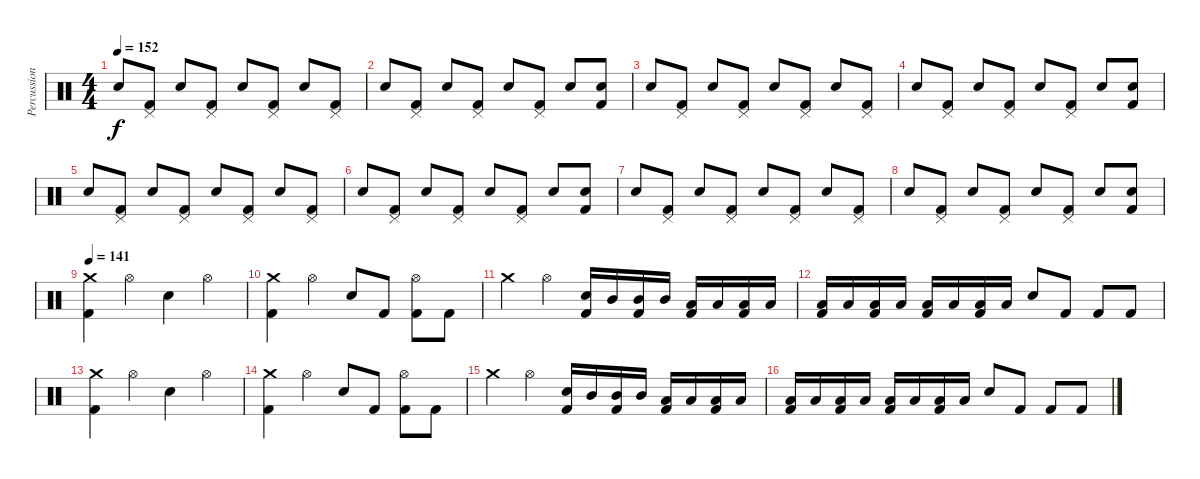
\track ("Percussion" "Percussion") {instrument percussion}
\staff {score}
\articulation defaults
\ts (4 4)
\tempo 152
\clef neutral
\ks c "Electric Snare (hit)".8{dy f}
("Pedal Hi-Hat (hit)" "Kick (hit) 2").8 "Electric Snare (hit)".8 ("Pedal Hi-Hat (hit)" "Kick (hit) 2").8 "Electric Snare (hit)".8 ("Pedal Hi-Hat (hit)" "Kick (hit) 2").8 "Electric Snare (hit)".8 ("Pedal Hi-Hat (hit)" "Kick (hit) 2").8 |
"Electric Snare (hit)".8 ("Pedal Hi-Hat (hit)" "Kick (hit) 2").8 "Electric Snare (hit)".8 ("Pedal Hi-Hat (hit)" "Kick (hit) 2").8 "Electric Snare (hit)".8 ("Pedal Hi-Hat (hit)" "Kick (hit) 2").8 "Electric Snare (hit)".8 ("Electric Snare (hit)" "Kick (hit) 2").8 |
"Electric Snare (hit)".8 ("Pedal Hi-Hat (hit)" "Kick (hit) 2").8 "Electric Snare (hit)".8 ("Pedal Hi-Hat (hit)" "Kick (hit) 2").8 "Electric Snare (hit)".8 ("Pedal Hi-Hat (hit)" "Kick (hit) 2").8 "Electric Snare (hit)".8 ("Pedal Hi-Hat (hit)" "Kick (hit) 2").8 |
"Electric Snare (hit)".8 ("Pedal Hi-Hat (hit)" "Kick (hit) 2").8 "Electric Snare (hit)".8 ("Pedal Hi-Hat (hit)" "Kick (hit) 2").8 "Electric Snare (hit)".8 ("Pedal Hi-Hat (hit)" "Kick (hit) 2").8 "Electric Snare (hit)".8 ("Electric Snare (hit)" "Kick (hit) 2").8 |
"Electric Snare (hit)".8 ("Pedal Hi-Hat (hit)" "Kick (hit) 2").8 "Electric Snare (hit)".8 ("Pedal Hi-Hat (hit)" "Kick (hit) 2").8 "Electric Snare (hit)".8 ("Pedal Hi-Hat (hit)" "Kick (hit) 2").8 "Electric Snare (hit)".8 ("Pedal Hi-Hat (hit)" "Kick (hit) 2").8 |
"Electric Snare (hit)".8 ("Pedal Hi-Hat (hit)" "Kick (hit) 2").8 "Electric Snare (hit)".8 ("Pedal Hi-Hat (hit)" "Kick (hit) 2").8 "Electric Snare (hit)".8 ("Pedal Hi-Hat (hit)" "Kick (hit) 2").8 "Electric Snare (hit)".8 ("Electric Snare (hit)" "Kick (hit) 2").8 |
"Electric Snare (hit)".8 ("Pedal Hi-Hat (hit)" "Kick (hit) 2").8 "Electric Snare (hit)".8 ("Pedal Hi-Hat (hit)" "Kick (hit) 2").8 "Electric Snare (hit)".8 ("Pedal Hi-Hat (hit)" "Kick (hit) 2").8 "Electric Snare (hit)".8 ("Pedal Hi-Hat (hit)" "Kick (hit) 2").8 |
"Electric Snare (hit)".8 ("Pedal Hi-Hat (hit)" "Kick (hit) 2").8 "Electric Snare (hit)".8 ("Pedal Hi-Hat (hit)" "Kick (hit) 2").8 "Electric Snare (hit)".8 ("Pedal Hi-Hat (hit)" "Kick (hit) 2").8 "Electric Snare (hit)".8 ("Electric Snare (hit)" "Kick (hit) 2").8 |
\tempo 141
("Crash medium (hit)" "Kick (hit) 2").4{volume 9} "Hi-Hat (open)".4 "Electric Snare (hit)".4 "Hi-Hat (open)".4 |
("Crash medium (hit)" "Kick (hit) 2").4 "Hi-Hat (open)".4 "Electric Snare (hit)".8 "Kick (hit) 2".8 ("Hi-Hat (open)" "Kick (hit) 2").8 "Kick (hit) 2".8 |
"Crash medium (hit)".4 "Hi-Hat (open)".4 ("Electric Snare (hit)" "Kick (hit) 2").16 "Mid Tom (hit)".16 ("Mid Tom (hit)" "Kick (hit) 2").16 "Mid Tom (hit)".16 ("Low Tom (hit)" "Kick (hit) 2").16 "Low Tom (hit)".16 ("Low Tom (hit)" "Kick (hit) 2").16 "Low Floor Tom (hit)".16 |
("Low Floor Tom (hit)" "Kick (hit) 2").16 "Low Floor Tom (hit)".16 ("Low Tom (hit)" "Kick (hit) 2").16 "Low Tom (hit)".16 ("Low Tom (hit)" "Kick (hit) 2").16 "Low Floor Tom (hit)".16 ("Low Floor Tom (hit)" "Kick (hit) 2").16 "Low Floor Tom (hit)".16 "Electric Snare (hit)".8 "Kick (hit) 2".8 "Kick (hit) 2".8 "Kick (hit) 2".8 |
("Crash medium (hit)" "Kick (hit) 2").4{volume 9} "Hi-Hat (open)".4 "Electric Snare (hit)".4 "Hi-Hat (open)".4 |
("Crash medium (hit)" "Kick (hit) 2").4 "Hi-Hat (open)".4 "Electric Snare (hit)".8 "Kick (hit) 2".8 ("Hi-Hat (open)" "Kick (hit) 2").8 "Kick (hit) 2".8 |
"Crash medium (hit)".4 "Hi-Hat (open)".4 ("Electric Snare (hit)" "Kick (hit) 2").16 "Mid Tom (hit)".16 ("Mid Tom (hit)" "Kick (hit) 2").16 "Mid Tom (hit)".16 ("Low Tom (hit)" "Kick (hit) 2").16 "Low Tom (hit)".16 ("Low Tom (hit)" "Kick (hit) 2").16 "Low Floor Tom (hit)".16 |
("Low Floor Tom (hit)" "Kick (hit) 2").16 "Low Floor Tom (hit)".16 ("Low Tom (hit)" "Kick (hit) 2").16 "Low Tom (hit)".16 ("Low Tom (hit)" "Kick (hit) 2").16 "Low Floor Tom (hit)".16 ("Low Floor Tom (hit)" "Kick (hit) 2").16 "Low Floor Tom (hit)".16 "Electric Snare (hit)".8 "Kick (hit) 2".8 "Kick (hit) 2".8 "Kick (hit) 2".8
